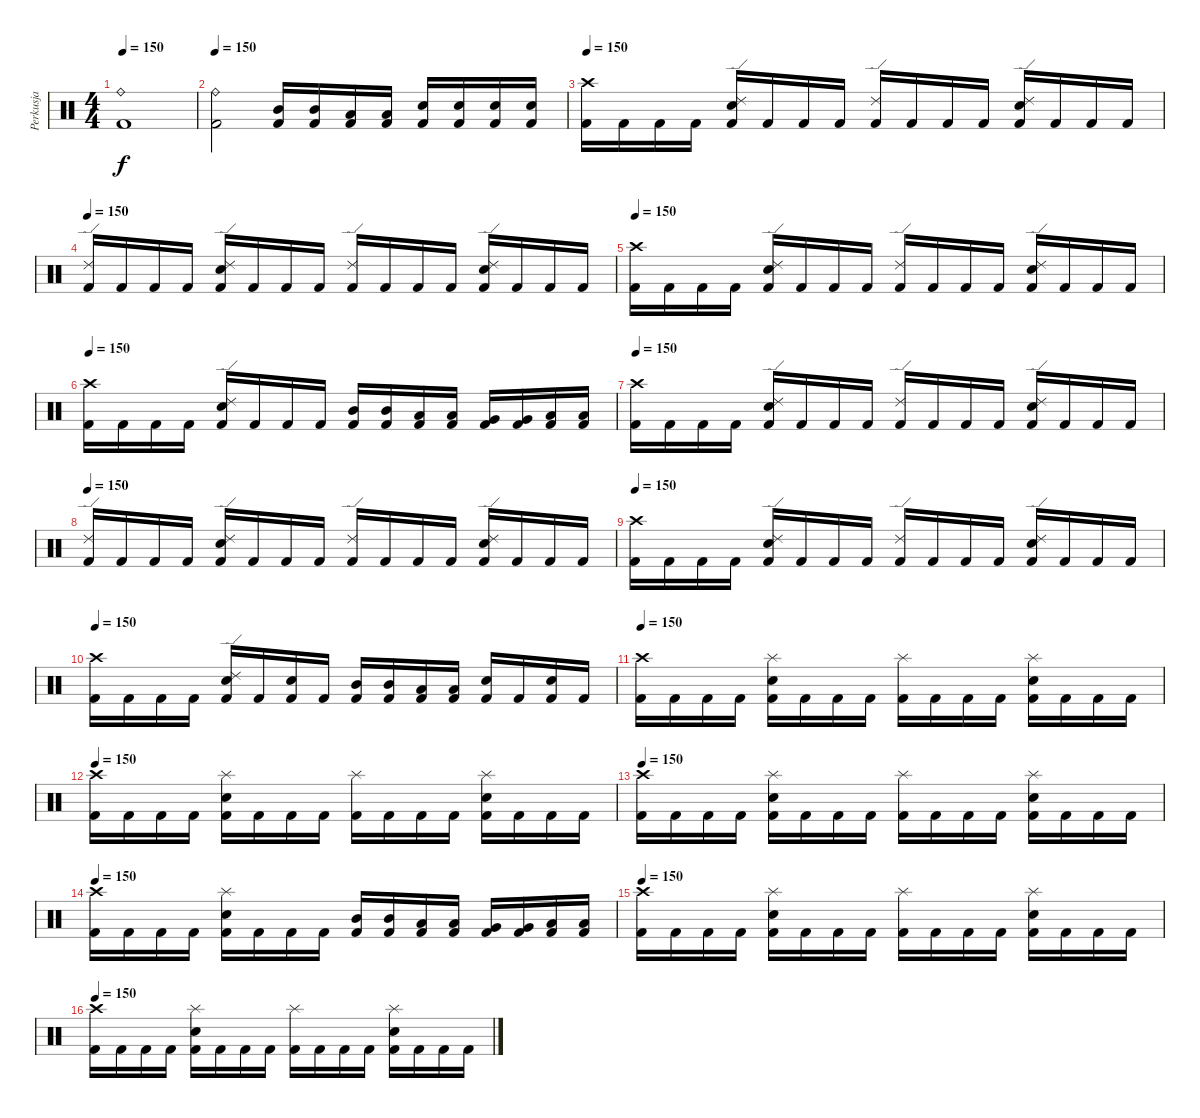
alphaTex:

\track ("Perkusja" "Perkusja") {instrument percussion}
\staff {score}
\articulation defaults
\ts (4 4)
\tempo 150
\clef neutral
\ks c
("Kick (hit) 2" "Ride (bell)").1{dy f} |
\tempo 150
("Kick (hit) 2" "Ride (bell)").2 ("Kick (hit) 2" "Mid Tom (hit)").16 ("Kick (hit) 2" "Mid Tom (hit)").16 ("Kick (hit) 2" "Low Tom (hit)").16 ("Kick (hit) 2" "Low Tom (hit)").16 ("Kick (hit) 2" "Electric Snare (hit)").16 ("Kick (hit) 2" "Electric Snare (hit)").16 ("Kick (hit) 2" "Electric Snare (hit)").16 ("Kick (hit) 2" "Electric Snare (hit)").16 |
\tempo 150
("Crash high (hit)" "Kick (hit) 2").16 "Kick (hit) 2".16 "Kick (hit) 2".16 "Kick (hit) 2".16 ("Ride (edge) 2" "Electric Snare (hit)" "Kick (hit) 2").16 "Kick (hit) 2".16 "Kick (hit) 2".16 "Kick (hit) 2".16 ("Ride (edge) 2" "Kick (hit) 2").16 "Kick (hit) 2".16 "Kick (hit) 2".16 "Kick (hit) 2".16 ("Ride (edge) 2" "Electric Snare (hit)" "Kick (hit) 2").16 "Kick (hit) 2".16 "Kick (hit) 2".16 "Kick (hit) 2".16 |
\tempo 150
("Ride (edge) 2" "Kick (hit) 2").16 "Kick (hit) 2".16 "Kick (hit) 2".16 "Kick (hit) 2".16 ("Ride (edge) 2" "Electric Snare (hit)" "Kick (hit) 2").16 "Kick (hit) 2".16 "Kick (hit) 2".16 "Kick (hit) 2".16 ("Ride (edge) 2" "Kick (hit) 2").16 "Kick (hit) 2".16 "Kick (hit) 2".16 "Kick (hit) 2".16 ("Ride (edge) 2" "Electric Snare (hit)" "Kick (hit) 2").16 "Kick (hit) 2".16 "Kick (hit) 2".16 "Kick (hit) 2".16 |
\tempo 150
("Crash high (hit)" "Kick (hit) 2").16 "Kick (hit) 2".16 "Kick (hit) 2".16 "Kick (hit) 2".16 ("Ride (edge) 2" "Electric Snare (hit)" "Kick (hit) 2").16 "Kick (hit) 2".16 "Kick (hit) 2".16 "Kick (hit) 2".16 ("Ride (edge) 2" "Kick (hit) 2").16 "Kick (hit) 2".16 "Kick (hit) 2".16 "Kick (hit) 2".16 ("Ride (edge) 2" "Electric Snare (hit)" "Kick (hit) 2").16 "Kick (hit) 2".16 "Kick (hit) 2".16 "Kick (hit) 2".16 |
\tempo 150
("Crash high (hit)" "Kick (hit) 2").16 "Kick (hit) 2".16 "Kick (hit) 2".16 "Kick (hit) 2".16 ("Ride (edge) 2" "Electric Snare (hit)" "Kick (hit) 2").16 "Kick (hit) 2".16 "Kick (hit) 2".16 "Kick (hit) 2".16 ("Mid Tom (hit)" "Kick (hit) 2").16 ("Mid Tom (hit)" "Kick (hit) 2").16 ("Low Tom (hit)" "Kick (hit) 2").16 ("Low Tom (hit)" "Kick (hit) 2").16 ("Very Low Tom (hit)" "Kick (hit) 2").16 ("Very Low Tom (hit)" "Kick (hit) 2").16 ("Low Floor Tom (hit)" "Kick (hit) 2").16 ("Low Floor Tom (hit)" "Kick (hit) 2").16 |
\tempo 150
("Crash high (hit)" "Kick (hit) 2").16 "Kick (hit) 2".16 "Kick (hit) 2".16 "Kick (hit) 2".16 ("Ride (edge) 2" "Electric Snare (hit)" "Kick (hit) 2").16 "Kick (hit) 2".16 "Kick (hit) 2".16 "Kick (hit) 2".16 ("Ride (edge) 2" "Kick (hit) 2").16 "Kick (hit) 2".16 "Kick (hit) 2".16 "Kick (hit) 2".16 ("Ride (edge) 2" "Electric Snare (hit)" "Kick (hit) 2").16 "Kick (hit) 2".16 "Kick (hit) 2".16 "Kick (hit) 2".16 |
\tempo 150
("Ride (edge) 2" "Kick (hit) 2").16 "Kick (hit) 2".16 "Kick (hit) 2".16 "Kick (hit) 2".16 ("Ride (edge) 2" "Electric Snare (hit)" "Kick (hit) 2").16 "Kick (hit) 2".16 "Kick (hit) 2".16 "Kick (hit) 2".16 ("Ride (edge) 2" "Kick (hit) 2").16 "Kick (hit) 2".16 "Kick (hit) 2".16 "Kick (hit) 2".16 ("Ride (edge) 2" "Electric Snare (hit)" "Kick (hit) 2").16 "Kick (hit) 2".16 "Kick (hit) 2".16 "Kick (hit) 2".16 |
\tempo 150
("Crash high (hit)" "Kick (hit) 2").16 "Kick (hit) 2".16 "Kick (hit) 2".16 "Kick (hit) 2".16 ("Ride (edge) 2" "Electric Snare (hit)" "Kick (hit) 2").16 "Kick (hit) 2".16 "Kick (hit) 2".16 "Kick (hit) 2".16 ("Ride (edge) 2" "Kick (hit) 2").16 "Kick (hit) 2".16 "Kick (hit) 2".16 "Kick (hit) 2".16 ("Ride (edge) 2" "Electric Snare (hit)" "Kick (hit) 2").16 "Kick (hit) 2".16 "Kick (hit) 2".16 "Kick (hit) 2".16 |
\tempo 150
("Crash high (hit)" "Kick (hit) 2").16 "Kick (hit) 2".16 "Kick (hit) 2".16 "Kick (hit) 2".16 ("Ride (edge) 2" "Electric Snare (hit)" "Kick (hit) 2").16 "Kick (hit) 2".16 ("Electric Snare (hit)" "Kick (hit) 2").16 "Kick (hit) 2".16 ("Mid Tom (hit)" "Kick (hit) 2").16 ("Mid Tom (hit)" "Kick (hit) 2").16 ("Low Tom (hit)" "Kick (hit) 2").16 ("Low Tom (hit)" "Kick (hit) 2").16 ("Electric Snare (hit)" "Kick (hit) 2").16 "Kick (hit) 2".16 ("Electric Snare (hit)" "Kick (hit) 2").16 "Kick (hit) 2".16 |
\tempo 150
("Crash high (hit)" "Kick (hit) 2").16 "Kick (hit) 2".16 "Kick (hit) 2".16 "Kick (hit) 2".16 ("Splash (hit)" "Electric Snare (hit)" "Kick (hit) 2").16 "Kick (hit) 2".16 "Kick (hit) 2".16 "Kick (hit) 2".16 ("Splash (hit)" "Kick (hit) 2").16 "Kick (hit) 2".16 "Kick (hit) 2".16 "Kick (hit) 2".16 ("Splash (hit)" "Electric Snare (hit)" "Kick (hit) 2").16 "Kick (hit) 2".16 "Kick (hit) 2".16 "Kick (hit) 2".16 |
\tempo 150
("Crash high (hit)" "Kick (hit) 2").16 "Kick (hit) 2".16 "Kick (hit) 2".16 "Kick (hit) 2".16 ("Splash (hit)" "Electric Snare (hit)" "Kick (hit) 2").16 "Kick (hit) 2".16 "Kick (hit) 2".16 "Kick (hit) 2".16 ("Splash (hit)" "Kick (hit) 2").16 "Kick (hit) 2".16 "Kick (hit) 2".16 "Kick (hit) 2".16 ("Splash (hit)" "Electric Snare (hit)" "Kick (hit) 2").16 "Kick (hit) 2".16 "Kick (hit) 2".16 "Kick (hit) 2".16 |
\tempo 150
("Crash high (hit)" "Kick (hit) 2").16 "Kick (hit) 2".16 "Kick (hit) 2".16 "Kick (hit) 2".16 ("Splash (hit)" "Electric Snare (hit)" "Kick (hit) 2").16 "Kick (hit) 2".16 "Kick (hit) 2".16 "Kick (hit) 2".16 ("Splash (hit)" "Kick (hit) 2").16 "Kick (hit) 2".16 "Kick (hit) 2".16 "Kick (hit) 2".16 ("Splash (hit)" "Electric Snare (hit)" "Kick (hit) 2").16 "Kick (hit) 2".16 "Kick (hit) 2".16 "Kick (hit) 2".16 |
\tempo 150
("Crash high (hit)" "Kick (hit) 2").16 "Kick (hit) 2".16 "Kick (hit) 2".16 "Kick (hit) 2".16 ("Splash (hit)" "Electric Snare (hit)" "Kick (hit) 2").16 "Kick (hit) 2".16 "Kick (hit) 2".16 "Kick (hit) 2".16 ("Mid Tom (hit)" "Kick (hit) 2").16 ("Mid Tom (hit)" "Kick (hit) 2").16 ("Low Tom (hit)" "Kick (hit) 2").16 ("Low Tom (hit)" "Kick (hit) 2").16 ("Very Low Tom (hit)" "Kick (hit) 2").16 ("Very Low Tom (hit)" "Kick (hit) 2").16 ("Low Floor Tom (hit)" "Kick (hit) 2").16 ("Low Floor Tom (hit)" "Kick (hit) 2").16 |
\tempo 150
("Crash high (hit)" "Kick (hit) 2").16 "Kick (hit) 2".16 "Kick (hit) 2".16 "Kick (hit) 2".16 ("Splash (hit)" "Electric Snare (hit)" "Kick (hit) 2").16 "Kick (hit) 2".16 "Kick (hit) 2".16 "Kick (hit) 2".16 ("Splash (hit)" "Kick (hit) 2").16 "Kick (hit) 2".16 "Kick (hit) 2".16 "Kick (hit) 2".16 ("Splash (hit)" "Electric Snare (hit)" "Kick (hit) 2").16 "Kick (hit) 2".16 "Kick (hit) 2".16 "Kick (hit) 2".16 |
\tempo 150
("Crash high (hit)" "Kick (hit) 2").16 "Kick (hit) 2".16 "Kick (hit) 2".16 "Kick (hit) 2".16 ("Splash (hit)" "Electric Snare (hit)" "Kick (hit) 2").16 "Kick (hit) 2".16 "Kick (hit) 2".16 "Kick (hit) 2".16 ("Splash (hit)" "Kick (hit) 2").16 "Kick (hit) 2".16 "Kick (hit) 2".16 "Kick (hit) 2".16 ("Splash (hit)" "Electric Snare (hit)" "Kick (hit) 2").16 "Kick (hit) 2".16 "Kick (hit) 2".16 "Kick (hit) 2".16
